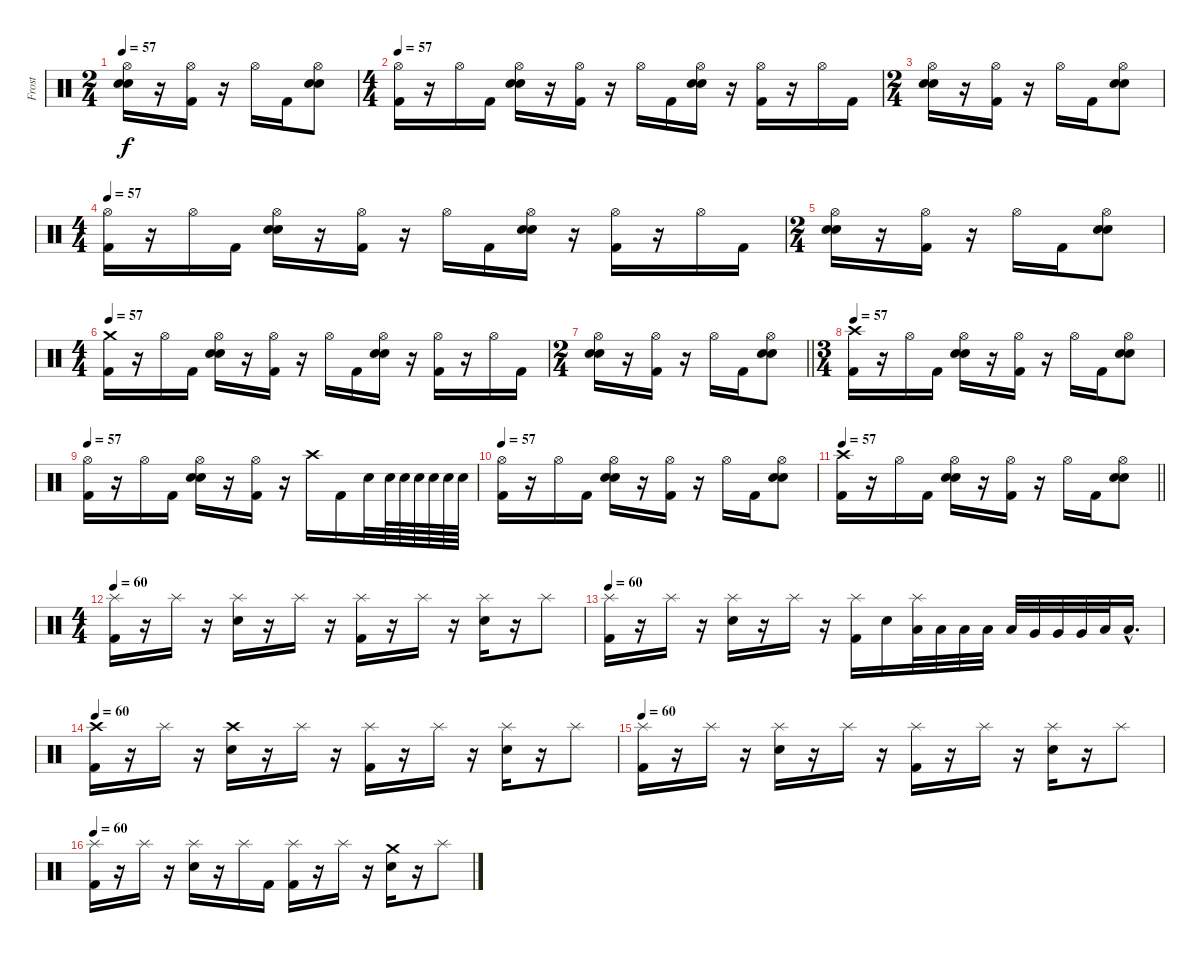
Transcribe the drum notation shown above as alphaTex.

\track ("Frost" "Frost") {instrument percussion}
\staff {score}
\articulation defaults
\ts (2 4)
\tempo 57
\clef neutral
\ks c
("Electric Snare (hit)" "Electric Snare (hit)" "Hi-Hat (open)").16{dy f} r.16 ("Kick (hit) 2" "Hi-Hat (open)").16 r.16 "Hi-Hat (open)".16 "Kick (hit) 2".16 ("Electric Snare (hit)" "Electric Snare (hit)" "Hi-Hat (open)").8 |
\ts (4 4)
\tempo 57
("Kick (hit) 2" "Hi-Hat (open)").16 r.16 "Hi-Hat (open)".16 "Kick (hit) 2".16 ("Electric Snare (hit)" "Electric Snare (hit)" "Hi-Hat (open)").16 r.16 ("Kick (hit) 2" "Hi-Hat (open)").16 r.16 "Hi-Hat (open)".16 "Kick (hit) 2".16 ("Electric Snare (hit)" "Electric Snare (hit)" "Hi-Hat (open)").16 r.16 ("Kick (hit) 2" "Hi-Hat (open)").16 r.16 "Hi-Hat (open)".16 "Kick (hit) 2".16 |
\ts (2 4)
("Electric Snare (hit)" "Electric Snare (hit)" "Hi-Hat (open)").16 r.16 ("Kick (hit) 2" "Hi-Hat (open)").16 r.16 "Hi-Hat (open)".16 "Kick (hit) 2".16 ("Electric Snare (hit)" "Electric Snare (hit)" "Hi-Hat (open)").8 |
\ts (4 4)
\tempo 57
("Kick (hit) 2" "Hi-Hat (open)").16 r.16 "Hi-Hat (open)".16 "Kick (hit) 2".16 ("Electric Snare (hit)" "Electric Snare (hit)" "Hi-Hat (open)").16 r.16 ("Kick (hit) 2" "Hi-Hat (open)").16 r.16 "Hi-Hat (open)".16 "Kick (hit) 2".16 ("Electric Snare (hit)" "Electric Snare (hit)" "Hi-Hat (open)").16 r.16 ("Kick (hit) 2" "Hi-Hat (open)").16 r.16 "Hi-Hat (open)".16 "Kick (hit) 2".16 |
\ts (2 4)
("Electric Snare (hit)" "Electric Snare (hit)" "Hi-Hat (open)").16 r.16 ("Kick (hit) 2" "Hi-Hat (open)").16 r.16 "Hi-Hat (open)".16 "Kick (hit) 2".16 ("Electric Snare (hit)" "Electric Snare (hit)" "Hi-Hat (open)").8 |
\ts (4 4)
\tempo 57
("Kick (hit) 2" "Crash medium (hit)").16 r.16 "Hi-Hat (open)".16 "Kick (hit) 2".16 ("Electric Snare (hit)" "Electric Snare (hit)" "Hi-Hat (open)").16 r.16 ("Kick (hit) 2" "Hi-Hat (open)").16 r.16 "Hi-Hat (open)".16 "Kick (hit) 2".16 ("Electric Snare (hit)" "Electric Snare (hit)" "Hi-Hat (open)").16 r.16 ("Kick (hit) 2" "Hi-Hat (open)").16 r.16 "Hi-Hat (open)".16 "Kick (hit) 2".16 |
\ts (2 4)
\barLineRight lightlight
("Electric Snare (hit)" "Electric Snare (hit)" "Hi-Hat (open)").16 r.16 ("Kick (hit) 2" "Hi-Hat (open)").16 r.16 "Hi-Hat (open)".16 "Kick (hit) 2".16 ("Electric Snare (hit)" "Electric Snare (hit)" "Hi-Hat (open)").8 |
\ts (3 4)
\tempo 57
("Kick (hit) 2" "Crash high (hit)").16 r.16 "Hi-Hat (open)".16 "Kick (hit) 2".16 ("Electric Snare (hit)" "Electric Snare (hit)" "Hi-Hat (open)").16 r.16 ("Kick (hit) 2" "Hi-Hat (open)").16 r.16 "Hi-Hat (open)".16 "Kick (hit) 2".16 ("Electric Snare (hit)" "Electric Snare (hit)" "Hi-Hat (open)").8 |
\tempo 57
("Kick (hit) 2" "Hi-Hat (open)").16 r.16 "Hi-Hat (open)".16 "Kick (hit) 2".16 ("Electric Snare (hit)" "Electric Snare (hit)" "Hi-Hat (open)").16 r.16 ("Kick (hit) 2" "Hi-Hat (open)").16 r.16 "Crash high (hit)".16 "Kick (hit) 2".16 "Electric Snare (hit)".32 "Electric Snare (hit)".64 "Electric Snare (hit)".64 "Electric Snare (hit)".64 "Electric Snare (hit)".64 "Electric Snare (hit)".64 "Electric Snare (hit)".64 |
\tempo 57
("Kick (hit) 2" "Hi-Hat (open)").16 r.16 "Hi-Hat (open)".16 "Kick (hit) 2".16 ("Electric Snare (hit)" "Electric Snare (hit)" "Hi-Hat (open)").16 r.16 ("Kick (hit) 2" "Hi-Hat (open)").16 r.16 "Hi-Hat (open)".16 "Kick (hit) 2".16 ("Electric Snare (hit)" "Electric Snare (hit)" "Hi-Hat (open)").8 |
\tempo 57
\barLineRight lightlight
("Kick (hit) 2" "Crash high (hit)").16 r.16 "Hi-Hat (open)".16 "Kick (hit) 2".16 ("Electric Snare (hit)" "Electric Snare (hit)" "Hi-Hat (open)").16 r.16 ("Kick (hit) 2" "Hi-Hat (open)").16 r.16 "Hi-Hat (open)".16 "Kick (hit) 2".16 ("Electric Snare (hit)" "Electric Snare (hit)" "Hi-Hat (open)").8 |
\ts (4 4)
\tempo 60
("Kick (hit) 2" "Splash (hit)").16 r.16 "Splash (hit)".16 r.16 ("Electric Snare (hit)" "Splash (hit)").16 r.16 "Splash (hit)".16 r.16 ("Kick (hit) 2" "Splash (hit)").16 r.16 "Splash (hit)".16 r.16 ("Electric Snare (hit)" "Splash (hit)").16 r.16 "Splash (hit)".8 |
\tempo 60
("Kick (hit) 2" "Splash (hit)").16 r.16 "Splash (hit)".16 r.16 ("Electric Snare (hit)" "Splash (hit)").16 r.16 "Splash (hit)".16 r.16 ("Kick (hit) 2" "Splash (hit)").16 "Electric Snare (hit)".16 ("Low Tom (hit)" "Splash (hit)").32 "Low Tom (hit)".32 "Low Tom (hit)".32 "Low Tom (hit)".32 "Low Tom (hit)".32 "Very Low Tom (hit)".32 "Very Low Tom (hit)".32 "Very Low Tom (hit)".32 "Low Floor Tom (hit)".32 "Low Floor Tom (hit)"{hac}.16{d} |
\tempo 60
("Kick (hit) 2" "Crash high (hit)").16 r.16 "Splash (hit)".16 r.16 ("Electric Snare (hit)" "Crash high (hit)").16 r.16 "Splash (hit)".16 r.16 ("Kick (hit) 2" "Splash (hit)").16 r.16 "Splash (hit)".16 r.16 ("Electric Snare (hit)" "Splash (hit)").16 r.16 "Splash (hit)".8 |
\tempo 60
("Kick (hit) 2" "Splash (hit)").16 r.16 "Splash (hit)".16 r.16 ("Electric Snare (hit)" "Splash (hit)").16 r.16 "Splash (hit)".16 r.16 ("Kick (hit) 2" "Splash (hit)").16 r.16 "Splash (hit)".16 r.16 ("Electric Snare (hit)" "Splash (hit)").16 r.16 "Splash (hit)".8 |
\tempo 60
("Kick (hit) 2" "Splash (hit)").16 r.16 "Splash (hit)".16 r.16 ("Electric Snare (hit)" "Splash (hit)").16 r.16 "Splash (hit)".16 "Kick (hit) 2".16 ("Kick (hit) 2" "Splash (hit)").16 r.16 "Splash (hit)".16 r.16 ("Electric Snare (hit)" "Crash medium (hit)").16 r.16 "Splash (hit)".8
